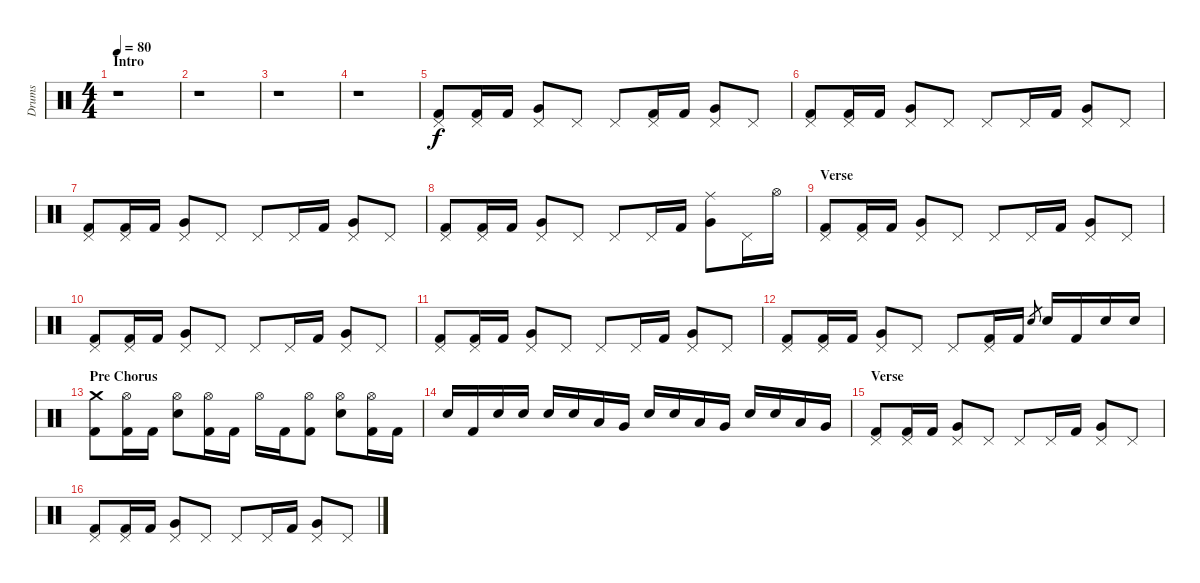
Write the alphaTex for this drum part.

\track ("Drums" "Drums") {instrument percussion}
\staff {score}
\articulation defaults
\ts (4 4)
\section ("" "Intro")
\tempo 80
\clef neutral
\ks c
r.1{dy f} |
r.1 |
r.1 |
r.1 |
("Pedal Hi-Hat (hit)" "Kick (hit) 2").8 ("Pedal Hi-Hat (hit)" "Kick (hit) 2").16 "Kick (hit) 2".16 ("Pedal Hi-Hat (hit)" "Very Low Tom (hit)").8 "Pedal Hi-Hat (hit)".8 "Pedal Hi-Hat (hit)".8 ("Pedal Hi-Hat (hit)" "Kick (hit) 2").16 "Kick (hit) 2".16 ("Pedal Hi-Hat (hit)" "Very Low Tom (hit)").8 "Pedal Hi-Hat (hit)".8 |
("Pedal Hi-Hat (hit)" "Kick (hit) 2").8 ("Pedal Hi-Hat (hit)" "Kick (hit) 2").16 "Kick (hit) 2".16 ("Pedal Hi-Hat (hit)" "Very Low Tom (hit)").8 "Pedal Hi-Hat (hit)".8 "Pedal Hi-Hat (hit)".8 "Pedal Hi-Hat (hit)".16 "Kick (hit) 2".16 ("Pedal Hi-Hat (hit)" "Very Low Tom (hit)").8 "Pedal Hi-Hat (hit)".8 |
("Pedal Hi-Hat (hit)" "Kick (hit) 2").8 ("Pedal Hi-Hat (hit)" "Kick (hit) 2").16 "Kick (hit) 2".16 ("Pedal Hi-Hat (hit)" "Very Low Tom (hit)").8 "Pedal Hi-Hat (hit)".8 "Pedal Hi-Hat (hit)".8 "Pedal Hi-Hat (hit)".16 "Kick (hit) 2".16 ("Pedal Hi-Hat (hit)" "Very Low Tom (hit)").8 "Pedal Hi-Hat (hit)".8 |
("Pedal Hi-Hat (hit)" "Kick (hit) 2").8 ("Pedal Hi-Hat (hit)" "Kick (hit) 2").16 "Kick (hit) 2".16 ("Pedal Hi-Hat (hit)" "Very Low Tom (hit)").8 "Pedal Hi-Hat (hit)".8 "Pedal Hi-Hat (hit)".8 "Pedal Hi-Hat (hit)".16 "Kick (hit) 2".16 ("Ride (middle)" "Very Low Tom (hit)").8 "Pedal Hi-Hat (hit)".16 "Hi-Hat (open)".16 |
\section ("" "Verse")
("Pedal Hi-Hat (hit)" "Kick (hit) 2").8 ("Pedal Hi-Hat (hit)" "Kick (hit) 2").16 "Kick (hit) 2".16 ("Pedal Hi-Hat (hit)" "Very Low Tom (hit)").8 "Pedal Hi-Hat (hit)".8 "Pedal Hi-Hat (hit)".8 "Pedal Hi-Hat (hit)".16 "Kick (hit) 2".16 ("Pedal Hi-Hat (hit)" "Very Low Tom (hit)").8 "Pedal Hi-Hat (hit)".8 |
("Pedal Hi-Hat (hit)" "Kick (hit) 2").8 ("Pedal Hi-Hat (hit)" "Kick (hit) 2").16 "Kick (hit) 2".16 ("Pedal Hi-Hat (hit)" "Very Low Tom (hit)").8 "Pedal Hi-Hat (hit)".8 "Pedal Hi-Hat (hit)".8 "Pedal Hi-Hat (hit)".16 "Kick (hit) 2".16 ("Pedal Hi-Hat (hit)" "Very Low Tom (hit)").8 "Pedal Hi-Hat (hit)".8 |
("Pedal Hi-Hat (hit)" "Kick (hit) 2").8 ("Pedal Hi-Hat (hit)" "Kick (hit) 2").16 "Kick (hit) 2".16 ("Pedal Hi-Hat (hit)" "Very Low Tom (hit)").8 "Pedal Hi-Hat (hit)".8 "Pedal Hi-Hat (hit)".8 "Pedal Hi-Hat (hit)".16 "Kick (hit) 2".16 ("Pedal Hi-Hat (hit)" "Very Low Tom (hit)").8 "Pedal Hi-Hat (hit)".8 |
("Pedal Hi-Hat (hit)" "Kick (hit) 2").8 ("Pedal Hi-Hat (hit)" "Kick (hit) 2").16 "Kick (hit) 2".16 ("Pedal Hi-Hat (hit)" "Very Low Tom (hit)").8 "Pedal Hi-Hat (hit)".8 "Pedal Hi-Hat (hit)".8 ("Pedal Hi-Hat (hit)" "Kick (hit) 2").16 "Kick (hit) 2".16 "Electric Snare (hit)".8{gr} "Electric Snare (hit)".16 "Kick (hit) 2".16 "Electric Snare (hit)".16 "Electric Snare (hit)".16 |
\section ("" "Pre Chorus")
("Crash medium (hit)" "Kick (hit) 2").8 ("Hi-Hat (open)" "Kick (hit) 2").16 "Kick (hit) 2".16 ("Hi-Hat (open)" "Electric Snare (hit)").8 ("Hi-Hat (open)" "Kick (hit) 2").16 "Kick (hit) 2".16 "Hi-Hat (open)".16 "Kick (hit) 2".16 ("Hi-Hat (open)" "Kick (hit) 2").8 ("Hi-Hat (open)" "Electric Snare (hit)").8 ("Hi-Hat (open)" "Kick (hit) 2").16 "Kick (hit) 2".16 |
"Electric Snare (hit)".16 "Kick (hit) 2".16 "Electric Snare (hit)".16 "Electric Snare (hit)".16 "Electric Snare (hit)".16 "Electric Snare (hit)".16 "Low Tom (hit)".16 "Very Low Tom (hit)".16 "Electric Snare (hit)".16 "Electric Snare (hit)".16 "Low Tom (hit)".16 "Very Low Tom (hit)".16 "Electric Snare (hit)".16 "Electric Snare (hit)".16 "Low Tom (hit)".16 "Very Low Tom (hit)".16 |
\section ("" "Verse")
("Pedal Hi-Hat (hit)" "Kick (hit) 2").8 ("Pedal Hi-Hat (hit)" "Kick (hit) 2").16 "Kick (hit) 2".16 ("Pedal Hi-Hat (hit)" "Very Low Tom (hit)").8 "Pedal Hi-Hat (hit)".8 "Pedal Hi-Hat (hit)".8 "Pedal Hi-Hat (hit)".16 "Kick (hit) 2".16 ("Pedal Hi-Hat (hit)" "Very Low Tom (hit)").8 "Pedal Hi-Hat (hit)".8 |
("Pedal Hi-Hat (hit)" "Kick (hit) 2").8 ("Pedal Hi-Hat (hit)" "Kick (hit) 2").16 "Kick (hit) 2".16 ("Pedal Hi-Hat (hit)" "Very Low Tom (hit)").8 "Pedal Hi-Hat (hit)".8 "Pedal Hi-Hat (hit)".8 "Pedal Hi-Hat (hit)".16 "Kick (hit) 2".16 ("Pedal Hi-Hat (hit)" "Very Low Tom (hit)").8 "Pedal Hi-Hat (hit)".8
